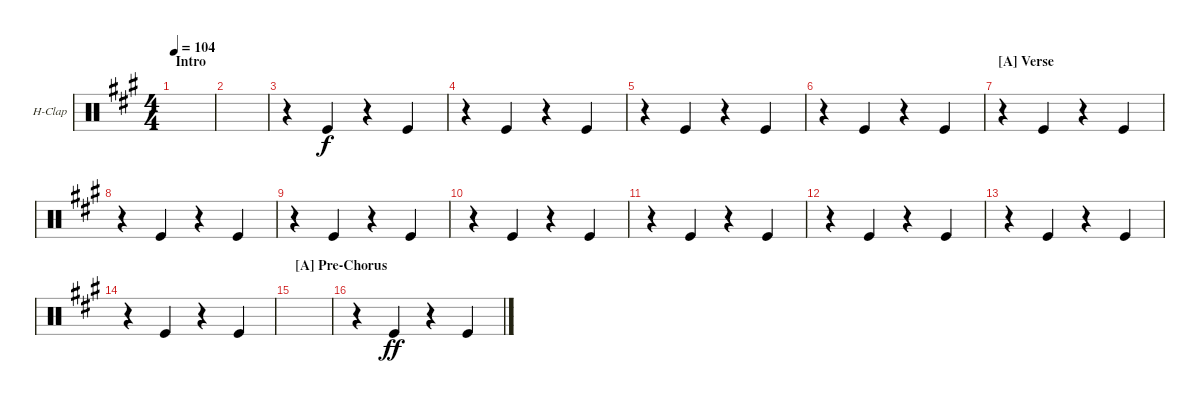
\defaultSystemsLayout 4
\bracketExtendMode groupsimilarinstruments
\firstSystemTrackNameOrientation horizontal
\otherSystemsTrackNameOrientation horizontal
\track ("Hand Clap" "H-Clap") {instrument percussion}
\staff {score}
\articulation defaults
\ts (4 4)
\section ("" "Intro")
\tempo 104
\clef neutral
\scale
0.529412
\ks a
|
\scale
0.235294 |
\scale
0.235294 r.4 "Kick (hit)".4 r.4 "Kick (hit)".4 |
\scale
0.333333 r.4 "Kick (hit)".4 r.4 "Kick (hit)".4 |
\scale
0.333333 r.4 "Kick (hit)".4 r.4 "Kick (hit)".4 |
\scale
0.333333 r.4 "Kick (hit)".4 r.4 "Kick (hit)".4 |
\section ("A" "Verse")
r.4 "Kick (hit)".4 r.4 "Kick (hit)".4 |
r.4 "Kick (hit)".4 r.4 "Kick (hit)".4 |
r.4 "Kick (hit)".4 r.4 "Kick (hit)".4 |
r.4 "Kick (hit)".4 r.4 "Kick (hit)".4 |
r.4 "Kick (hit)".4 r.4 "Kick (hit)".4 |
r.4 "Kick (hit)".4 r.4 "Kick (hit)".4 |
r.4 "Kick (hit)".4 r.4 "Kick (hit)".4 |
r.4 "Kick (hit)".4 r.4 "Kick (hit)".4 |
\section ("A" "Pre-Chorus")
\scale
0.333333 |
\scale
0.333333 r.4 "Kick (hit)".4{dy ff} r.4 "Kick (hit)".4
